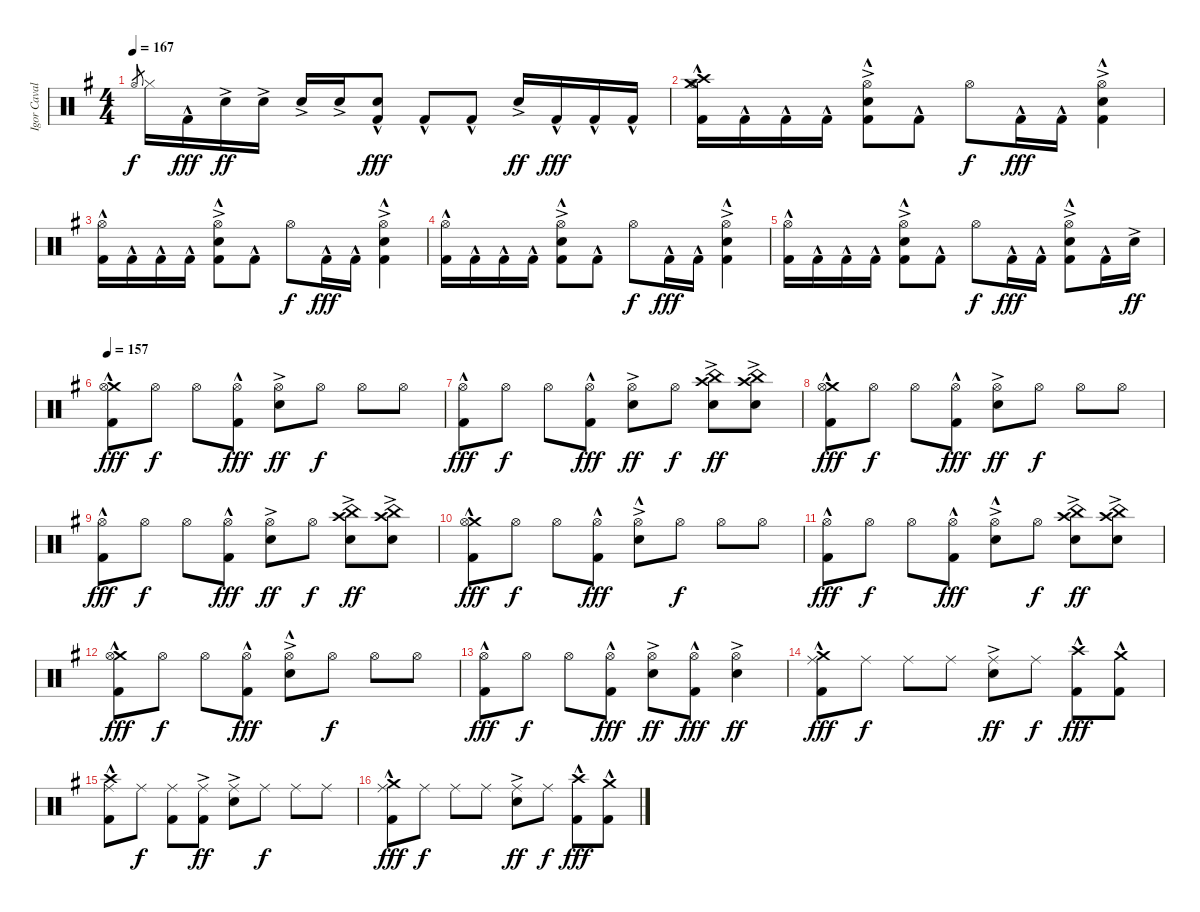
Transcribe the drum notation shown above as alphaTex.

\track ("Igor Cavalera" "Igor Caval") {instrument percussion}
\staff {score}
\articulation defaults
\ts (4 4)
\tempo 167
\clef neutral
\ks g "Hi-Hat (open)".8{gr dy f} "Hi-Hat (closed)".16 "Kick (hit) 2"{hac}.16{dy fff} "Snare (hit) 2"{ac}.16{dy ff} "Snare (hit) 2"{ac}.16 "Snare (hit) 2"{ac}.16 "Snare (hit) 2"{ac}.16
("Snare (hit) 2" "Kick (hit) 2"{hac}).8{dy fff} "Kick (hit) 2"{hac}.8 "Kick (hit) 2"{hac}.8 "Snare (hit) 2"{ac}.16{dy ff} "Kick (hit) 2"{hac}.16{dy fff} "Kick (hit) 2"{hac}.16 "Kick (hit) 2"{hac}.16 |
("Crash medium (hit)"{hac} "Crash high (hit)" "Hi-Hat (open)" "Kick (hit) 2"{hac}).16 "Kick (hit) 2"{hac}.16 "Kick (hit) 2"{hac}.16 "Kick (hit) 2"{hac}.16 ("Snare (hit) 2"{ac} "Hi-Hat (open)" "Kick (hit) 2"{hac}).8 "Kick (hit) 2"{hac}.8 "Hi-Hat (open)".8{dy f} "Kick (hit) 2"{hac}.16{dy fff} "Kick (hit) 2"{hac}.16 ("Snare (hit) 2"{ac} "Hi-Hat (open)" "Kick (hit) 2"{hac}).4 |
("Hi-Hat (open)" "Kick (hit) 2"{hac}).16 "Kick (hit) 2"{hac}.16 "Kick (hit) 2"{hac}.16 "Kick (hit) 2"{hac}.16 ("Snare (hit) 2"{ac} "Hi-Hat (open)" "Kick (hit) 2"{hac}).8 "Kick (hit) 2"{hac}.8 "Hi-Hat (open)".8{dy f} "Kick (hit) 2"{hac}.16{dy fff} "Kick (hit) 2"{hac}.16 ("Snare (hit) 2"{ac} "Hi-Hat (open)" "Kick (hit) 2"{hac}).4 |
("Hi-Hat (open)" "Kick (hit) 2"{hac}).16 "Kick (hit) 2"{hac}.16 "Kick (hit) 2"{hac}.16 "Kick (hit) 2"{hac}.16 ("Snare (hit) 2"{ac} "Hi-Hat (open)" "Kick (hit) 2"{hac}).8 "Kick (hit) 2"{hac}.8 "Hi-Hat (open)".8{dy f} "Kick (hit) 2"{hac}.16{dy fff} "Kick (hit) 2"{hac}.16 ("Snare (hit) 2"{ac} "Hi-Hat (open)" "Kick (hit) 2"{hac}).4 |
("Hi-Hat (open)" "Kick (hit) 2"{hac}).16 "Kick (hit) 2"{hac}.16 "Kick (hit) 2"{hac}.16 "Kick (hit) 2"{hac}.16 ("Snare (hit) 2"{ac} "Hi-Hat (open)" "Kick (hit) 2"{hac}).8 "Kick (hit) 2"{hac}.8 "Hi-Hat (open)".8{dy f} "Kick (hit) 2"{hac}.16{dy fff} "Kick (hit) 2"{hac}.16 ("Snare (hit) 2"{ac} "Hi-Hat (open)" "Kick (hit) 2"{hac}).8 "Kick (hit) 2"{hac}.16 "Snare (hit) 2"{ac}.16{dy ff} |
\tempo 157
("Crash medium (hit)" "Hi-Hat (open)" "Kick (hit) 2"{hac}).8{dy fff} "Hi-Hat (open)".8{dy f} "Hi-Hat (open)".8 ("Hi-Hat (open)" "Kick (hit) 2"{hac}).8{dy fff} ("Snare (hit) 2"{ac} "Hi-Hat (open)").8{dy ff} "Hi-Hat (open)".8{dy f} "Hi-Hat (open)".8 "Hi-Hat (open)".8 |
("Hi-Hat (open)" "Kick (hit) 2"{hac}).8{dy fff} "Hi-Hat (open)".8{dy f} "Hi-Hat (open)".8 ("Hi-Hat (open)" "Kick (hit) 2"{hac}).8{dy fff} ("Snare (hit) 2"{ac} "Hi-Hat (open)").8{dy ff} "Hi-Hat (open)".8{dy f} ("Crash high (hit)" "China (hit)" "Snare (hit) 2"{ac}).8{dy ff} ("Crash high (hit)" "China (hit)" "Snare (hit) 2"{ac}).8 |
("Crash medium (hit)" "Hi-Hat (open)" "Kick (hit) 2"{hac}).8{dy fff} "Hi-Hat (open)".8{dy f} "Hi-Hat (open)".8 ("Hi-Hat (open)" "Kick (hit) 2"{hac}).8{dy fff} ("Snare (hit) 2"{ac} "Hi-Hat (open)").8{dy ff} "Hi-Hat (open)".8{dy f} "Hi-Hat (open)".8 "Hi-Hat (open)".8 |
("Hi-Hat (open)" "Kick (hit) 2"{hac}).8{dy fff} "Hi-Hat (open)".8{dy f} "Hi-Hat (open)".8 ("Hi-Hat (open)" "Kick (hit) 2"{hac}).8{dy fff} ("Snare (hit) 2"{ac} "Hi-Hat (open)").8{dy ff} "Hi-Hat (open)".8{dy f} ("Crash high (hit)" "China (hit)" "Snare (hit) 2"{ac}).8{dy ff} ("Crash high (hit)" "China (hit)" "Snare (hit) 2"{ac}).8 |
("Crash medium (hit)" "Hi-Hat (open)" "Kick (hit) 2"{hac}).8{dy fff} "Hi-Hat (open)".8{dy f} "Hi-Hat (open)".8 ("Hi-Hat (open)" "Kick (hit) 2"{hac}).8{dy fff} ("Snare (hit) 2"{ac} "Hi-Hat (open)"{hac}).8 "Hi-Hat (open)".8{dy f} "Hi-Hat (open)".8 "Hi-Hat (open)".8 |
("Hi-Hat (open)" "Kick (hit) 2"{hac}).8{dy fff} "Hi-Hat (open)".8{dy f} "Hi-Hat (open)".8 ("Hi-Hat (open)" "Kick (hit) 2"{hac}).8{dy fff} ("Snare (hit) 2"{ac} "Hi-Hat (open)"{hac}).8 "Hi-Hat (open)".8{dy f} ("Crash high (hit)" "China (hit)" "Snare (hit) 2"{ac}).8{dy ff} ("Crash high (hit)" "China (hit)" "Snare (hit) 2"{ac}).8 |
("Crash medium (hit)" "Hi-Hat (open)" "Kick (hit) 2"{hac}).8{dy fff} "Hi-Hat (open)".8{dy f} "Hi-Hat (open)".8 ("Hi-Hat (open)" "Kick (hit) 2"{hac}).8{dy fff} ("Snare (hit) 2"{ac} "Hi-Hat (open)"{hac}).8 "Hi-Hat (open)".8{dy f} "Hi-Hat (open)".8 "Hi-Hat (open)".8 |
("Hi-Hat (open)" "Kick (hit) 2"{hac}).8{dy fff} "Hi-Hat (open)".8{dy f} "Hi-Hat (open)".8 ("Hi-Hat (open)" "Kick (hit) 2"{hac}).8{dy fff} ("Snare (hit) 2"{ac} "Hi-Hat (open)").8{dy ff} ("Hi-Hat (open)" "Kick (hit) 2"{hac}).8{dy fff} ("Snare (hit) 2"{ac} "Hi-Hat (open)").4{dy ff} |
("Crash medium (hit)" "Ride (middle)" "Kick (hit) 2"{hac}).8{dy fff} "Ride (middle)".8{dy f} "Ride (middle)".8 "Ride (middle)".8 ("Snare (hit) 2"{ac} "Ride (middle)").8{dy ff} "Ride (middle)".8{dy f} ("Crash high (hit)" "Kick (hit) 2"{hac}).8{dy fff} ("Crash medium (hit)" "Kick (hit) 2"{hac}).8 |
("Crash high (hit)" "Ride (middle)" "Kick (hit) 2"{hac}).8 "Ride (middle)".8{dy f} ("Ride (middle)" "Kick (hit) 2").8 ("Ride (middle)" "Kick (hit) 2"{ac}).8{dy ff} ("Snare (hit) 2"{ac} "Ride (middle)").8 "Ride (middle)".8{dy f} "Ride (middle)".8 "Ride (middle)".8 |
("Crash medium (hit)" "Ride (middle)" "Kick (hit) 2"{hac}).8{dy fff} "Ride (middle)".8{dy f} "Ride (middle)".8 "Ride (middle)".8 ("Snare (hit) 2"{ac} "Ride (middle)").8{dy ff} "Ride (middle)".8{dy f} ("Crash high (hit)" "Kick (hit) 2"{hac}).8{dy fff} ("Crash medium (hit)" "Kick (hit) 2"{hac}).8
